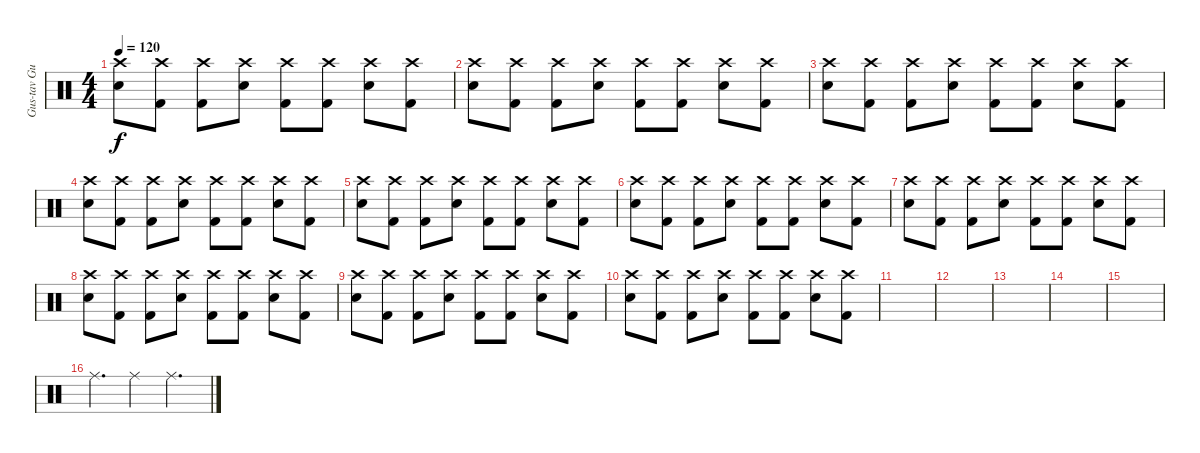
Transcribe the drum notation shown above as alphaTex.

\track ("Gus-tav Gus-Gus-tav" "Gus-tav Gu") {instrument percussion}
\staff {score}
\articulation defaults
\ts (4 4)
\tempo 120
\clef neutral
\ks c
("Snare (hit) 2" "Crash high (hit)").8{dy f} ("Kick (hit) 2" "Crash high (hit)").8 ("Crash high (hit)" "Kick (hit) 2").8 ("Snare (hit) 2" "Crash high (hit)").8 ("Kick (hit) 2" "Crash high (hit)").8 ("Kick (hit) 2" "Crash high (hit)").8 ("Snare (hit) 2" "Crash high (hit)").8 ("Crash high (hit)" "Kick (hit) 2").8 |
("Snare (hit) 2" "Crash high (hit)").8 ("Kick (hit) 2" "Crash high (hit)").8 ("Crash high (hit)" "Kick (hit) 2").8 ("Snare (hit) 2" "Crash high (hit)").8 ("Kick (hit) 2" "Crash high (hit)").8 ("Kick (hit) 2" "Crash high (hit)").8 ("Snare (hit) 2" "Crash high (hit)").8 ("Crash high (hit)" "Kick (hit) 2").8 |
("Snare (hit) 2" "Crash high (hit)").8 ("Kick (hit) 2" "Crash high (hit)").8 ("Crash high (hit)" "Kick (hit) 2").8 ("Snare (hit) 2" "Crash high (hit)").8 ("Kick (hit) 2" "Crash high (hit)").8 ("Kick (hit) 2" "Crash high (hit)").8 ("Snare (hit) 2" "Crash high (hit)").8 ("Crash high (hit)" "Kick (hit) 2").8 |
("Snare (hit) 2" "Crash high (hit)").8 ("Kick (hit) 2" "Crash high (hit)").8 ("Crash high (hit)" "Kick (hit) 2").8 ("Snare (hit) 2" "Crash high (hit)").8 ("Kick (hit) 2" "Crash high (hit)").8 ("Kick (hit) 2" "Crash high (hit)").8 ("Snare (hit) 2" "Crash high (hit)").8 ("Crash high (hit)" "Kick (hit) 2").8 |
("Snare (hit) 2" "Crash high (hit)").8 ("Kick (hit) 2" "Crash high (hit)").8 ("Crash high (hit)" "Kick (hit) 2").8 ("Snare (hit) 2" "Crash high (hit)").8 ("Kick (hit) 2" "Crash high (hit)").8 ("Kick (hit) 2" "Crash high (hit)").8 ("Snare (hit) 2" "Crash high (hit)").8 ("Crash high (hit)" "Kick (hit) 2").8 |
("Snare (hit) 2" "Crash high (hit)").8 ("Kick (hit) 2" "Crash high (hit)").8 ("Crash high (hit)" "Kick (hit) 2").8 ("Snare (hit) 2" "Crash high (hit)").8 ("Kick (hit) 2" "Crash high (hit)").8 ("Kick (hit) 2" "Crash high (hit)").8 ("Snare (hit) 2" "Crash high (hit)").8 ("Crash high (hit)" "Kick (hit) 2").8 |
("Snare (hit) 2" "Crash high (hit)").8 ("Kick (hit) 2" "Crash high (hit)").8 ("Crash high (hit)" "Kick (hit) 2").8 ("Snare (hit) 2" "Crash high (hit)").8 ("Kick (hit) 2" "Crash high (hit)").8 ("Kick (hit) 2" "Crash high (hit)").8 ("Snare (hit) 2" "Crash high (hit)").8 ("Crash high (hit)" "Kick (hit) 2").8 |
("Snare (hit) 2" "Crash high (hit)").8 ("Kick (hit) 2" "Crash high (hit)").8 ("Crash high (hit)" "Kick (hit) 2").8 ("Snare (hit) 2" "Crash high (hit)").8 ("Kick (hit) 2" "Crash high (hit)").8 ("Kick (hit) 2" "Crash high (hit)").8 ("Snare (hit) 2" "Crash high (hit)").8 ("Crash high (hit)" "Kick (hit) 2").8 |
("Snare (hit) 2" "Crash high (hit)").8 ("Kick (hit) 2" "Crash high (hit)").8 ("Crash high (hit)" "Kick (hit) 2").8 ("Snare (hit) 2" "Crash high (hit)").8 ("Kick (hit) 2" "Crash high (hit)").8 ("Kick (hit) 2" "Crash high (hit)").8 ("Snare (hit) 2" "Crash high (hit)").8 ("Crash high (hit)" "Kick (hit) 2").8 |
("Snare (hit) 2" "Crash high (hit)").8 ("Kick (hit) 2" "Crash high (hit)").8 ("Crash high (hit)" "Kick (hit) 2").8 ("Snare (hit) 2" "Crash high (hit)").8 ("Kick (hit) 2" "Crash high (hit)").8 ("Kick (hit) 2" "Crash high (hit)").8 ("Snare (hit) 2" "Crash high (hit)").8 ("Crash high (hit)" "Kick (hit) 2").8 |
|
|
|
|
|
"Ride (middle)".4{d volume 16} "Ride (middle)".4 "Ride (middle)".4{d}
